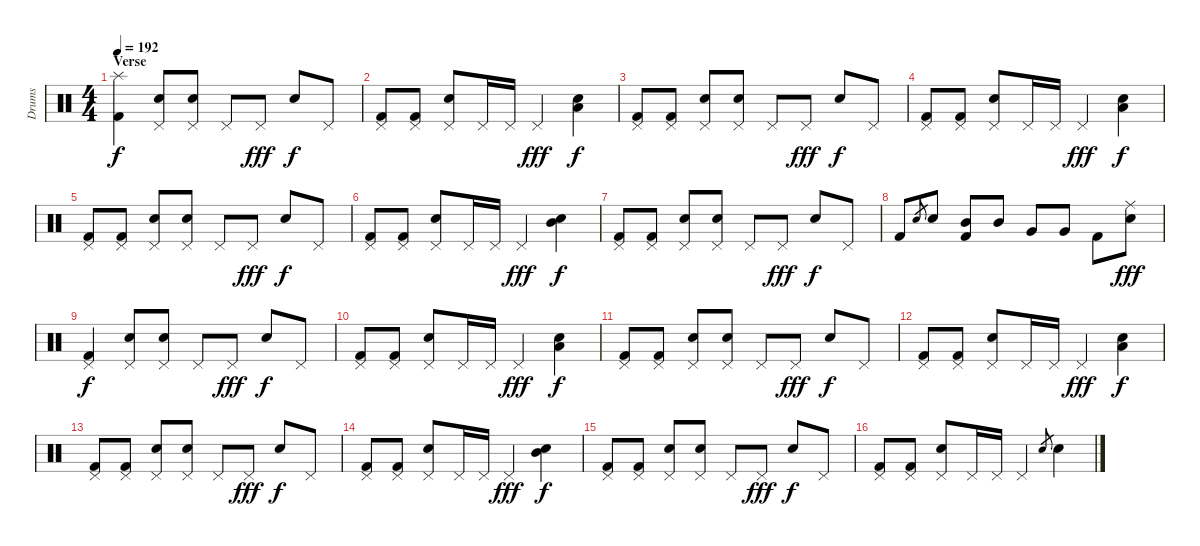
\track ("Drums" "Drums") {instrument percussion}
\staff {score}
\articulation defaults
\ts (4 4)
\section ("" "Verse")
\tempo 192
\clef neutral
\ks c
("Splash (hit)" "Kick (hit) 2").4{dy f} ("Pedal Hi-Hat (hit)" "Electric Snare (hit)").8 ("Pedal Hi-Hat (hit)" "Electric Snare (hit)").8 "Pedal Hi-Hat (hit)".8 "Pedal Hi-Hat (hit)".8{dy fff} "Electric Snare (hit)".8{dy f} "Pedal Hi-Hat (hit)".8 |
("Pedal Hi-Hat (hit)" "Kick (hit) 2").8 ("Pedal Hi-Hat (hit)" "Kick (hit) 2").8 ("Pedal Hi-Hat (hit)" "Electric Snare (hit)").8 "Pedal Hi-Hat (hit)".16 "Pedal Hi-Hat (hit)".16 "Pedal Hi-Hat (hit)".4{dy fff} ("Low Tom (hit)" "Electric Snare (hit)").4{dy f} |
("Pedal Hi-Hat (hit)" "Kick (hit) 2").8 ("Pedal Hi-Hat (hit)" "Kick (hit) 2").8 ("Pedal Hi-Hat (hit)" "Electric Snare (hit)").8 ("Pedal Hi-Hat (hit)" "Electric Snare (hit)").8 "Pedal Hi-Hat (hit)".8 "Pedal Hi-Hat (hit)".8{dy fff} "Electric Snare (hit)".8{dy f} "Pedal Hi-Hat (hit)".8 |
("Pedal Hi-Hat (hit)" "Kick (hit) 2").8 ("Pedal Hi-Hat (hit)" "Kick (hit) 2").8 ("Pedal Hi-Hat (hit)" "Electric Snare (hit)").8 "Pedal Hi-Hat (hit)".16 "Pedal Hi-Hat (hit)".16 "Pedal Hi-Hat (hit)".4{dy fff} ("Low Tom (hit)" "Electric Snare (hit)").4{dy f} |
("Pedal Hi-Hat (hit)" "Kick (hit) 2").8 ("Pedal Hi-Hat (hit)" "Kick (hit) 2").8 ("Pedal Hi-Hat (hit)" "Electric Snare (hit)").8 ("Pedal Hi-Hat (hit)" "Electric Snare (hit)").8 "Pedal Hi-Hat (hit)".8 "Pedal Hi-Hat (hit)".8{dy fff} "Electric Snare (hit)".8{dy f} "Pedal Hi-Hat (hit)".8 |
("Pedal Hi-Hat (hit)" "Kick (hit) 2").8 ("Pedal Hi-Hat (hit)" "Kick (hit) 2").8 ("Pedal Hi-Hat (hit)" "Electric Snare (hit)").8 "Pedal Hi-Hat (hit)".16 "Pedal Hi-Hat (hit)".16 "Pedal Hi-Hat (hit)".4{dy fff} ("Mid Tom (hit)" "Electric Snare (hit)").4{dy f} |
("Pedal Hi-Hat (hit)" "Kick (hit) 2").8 ("Pedal Hi-Hat (hit)" "Kick (hit) 2").8 ("Pedal Hi-Hat (hit)" "Electric Snare (hit)").8 ("Pedal Hi-Hat (hit)" "Electric Snare (hit)").8 "Pedal Hi-Hat (hit)".8 "Pedal Hi-Hat (hit)".8{dy fff} "Electric Snare (hit)".8{dy f} "Pedal Hi-Hat (hit)".8 |
"Kick (hit) 2".8 "Electric Snare (hit)".8{gr} "Electric Snare (hit)".8 ("Mid Tom (hit)" "Kick (hit) 2").8 "Mid Tom (hit)".8 "Very Low Tom (hit)".8 "Very Low Tom (hit)".8 "Kick (hit) 2".8 ("Ride (middle)" "Electric Snare (hit)").8{dy fff} |
("Pedal Hi-Hat (hit)" "Kick (hit) 2").4{dy f} ("Pedal Hi-Hat (hit)" "Electric Snare (hit)").8 ("Pedal Hi-Hat (hit)" "Electric Snare (hit)").8 "Pedal Hi-Hat (hit)".8 "Pedal Hi-Hat (hit)".8{dy fff} "Electric Snare (hit)".8{dy f} "Pedal Hi-Hat (hit)".8 |
("Pedal Hi-Hat (hit)" "Kick (hit) 2").8 ("Pedal Hi-Hat (hit)" "Kick (hit) 2").8 ("Pedal Hi-Hat (hit)" "Electric Snare (hit)").8 "Pedal Hi-Hat (hit)".16 "Pedal Hi-Hat (hit)".16 "Pedal Hi-Hat (hit)".4{dy fff} ("Low Tom (hit)" "Electric Snare (hit)").4{dy f} |
("Pedal Hi-Hat (hit)" "Kick (hit) 2").8 ("Pedal Hi-Hat (hit)" "Kick (hit) 2").8 ("Pedal Hi-Hat (hit)" "Electric Snare (hit)").8 ("Pedal Hi-Hat (hit)" "Electric Snare (hit)").8 "Pedal Hi-Hat (hit)".8 "Pedal Hi-Hat (hit)".8{dy fff} "Electric Snare (hit)".8{dy f} "Pedal Hi-Hat (hit)".8 |
("Pedal Hi-Hat (hit)" "Kick (hit) 2").8 ("Pedal Hi-Hat (hit)" "Kick (hit) 2").8 ("Pedal Hi-Hat (hit)" "Electric Snare (hit)").8 "Pedal Hi-Hat (hit)".16 "Pedal Hi-Hat (hit)".16 "Pedal Hi-Hat (hit)".4{dy fff} ("Low Tom (hit)" "Electric Snare (hit)").4{dy f} |
("Pedal Hi-Hat (hit)" "Kick (hit) 2").8 ("Pedal Hi-Hat (hit)" "Kick (hit) 2").8 ("Pedal Hi-Hat (hit)" "Electric Snare (hit)").8 ("Pedal Hi-Hat (hit)" "Electric Snare (hit)").8 "Pedal Hi-Hat (hit)".8 "Pedal Hi-Hat (hit)".8{dy fff} "Electric Snare (hit)".8{dy f} "Pedal Hi-Hat (hit)".8 |
("Pedal Hi-Hat (hit)" "Kick (hit) 2").8 ("Pedal Hi-Hat (hit)" "Kick (hit) 2").8 ("Pedal Hi-Hat (hit)" "Electric Snare (hit)").8 "Pedal Hi-Hat (hit)".16 "Pedal Hi-Hat (hit)".16 "Pedal Hi-Hat (hit)".4{dy fff} ("Mid Tom (hit)" "Electric Snare (hit)").4{dy f} |
("Pedal Hi-Hat (hit)" "Kick (hit) 2").8 ("Pedal Hi-Hat (hit)" "Kick (hit) 2").8 ("Pedal Hi-Hat (hit)" "Electric Snare (hit)").8 ("Pedal Hi-Hat (hit)" "Electric Snare (hit)").8 "Pedal Hi-Hat (hit)".8 "Pedal Hi-Hat (hit)".8{dy fff} "Electric Snare (hit)".8{dy f} "Pedal Hi-Hat (hit)".8 |
("Pedal Hi-Hat (hit)" "Kick (hit) 2").8 ("Pedal Hi-Hat (hit)" "Kick (hit) 2").8 ("Pedal Hi-Hat (hit)" "Electric Snare (hit)").8 "Pedal Hi-Hat (hit)".16 "Pedal Hi-Hat (hit)".16 "Pedal Hi-Hat (hit)".4 "Electric Snare (hit)".8{gr} "Electric Snare (hit)".4
